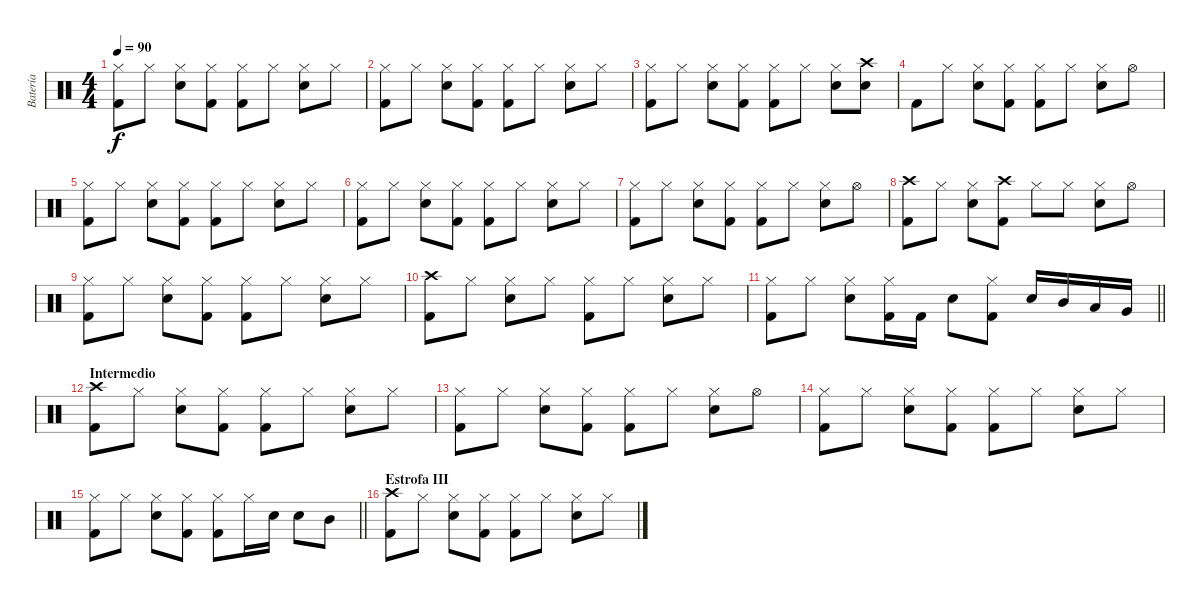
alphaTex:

\track ("Batería" "Batería") {instrument percussion}
\staff {score}
\articulation defaults
\ts (4 4)
\tempo 90
\clef neutral
\ks c
("Kick (hit) 2" "Hi-Hat (closed)").8{dy f} "Hi-Hat (closed)".8 ("Electric Snare (hit)" "Hi-Hat (closed)").8 ("Kick (hit) 2" "Hi-Hat (closed)").8 ("Kick (hit) 2" "Hi-Hat (closed)").8 "Hi-Hat (closed)".8 ("Electric Snare (hit)" "Hi-Hat (closed)").8 "Hi-Hat (closed)".8 |
("Kick (hit) 2" "Hi-Hat (closed)").8 "Hi-Hat (closed)".8 ("Electric Snare (hit)" "Hi-Hat (closed)").8 ("Kick (hit) 2" "Hi-Hat (closed)").8 ("Kick (hit) 2" "Hi-Hat (closed)").8 "Hi-Hat (closed)".8 ("Electric Snare (hit)" "Hi-Hat (closed)").8 "Hi-Hat (closed)".8 |
("Kick (hit) 2" "Hi-Hat (closed)").8 "Hi-Hat (closed)".8 ("Electric Snare (hit)" "Hi-Hat (closed)").8 ("Kick (hit) 2" "Hi-Hat (closed)").8 ("Kick (hit) 2" "Hi-Hat (closed)").8 "Hi-Hat (closed)".8 ("Electric Snare (hit)" "Hi-Hat (closed)").8 ("Electric Snare (hit)" "Crash high (hit)").8 |
"Kick (hit) 2".8 "Hi-Hat (closed)".8 ("Electric Snare (hit)" "Hi-Hat (closed)").8 ("Kick (hit) 2" "Hi-Hat (closed)").8 ("Kick (hit) 2" "Hi-Hat (closed)").8 "Hi-Hat (closed)".8 ("Electric Snare (hit)" "Hi-Hat (closed)").8 "Hi-Hat (open)".8 |
("Kick (hit) 2" "Hi-Hat (closed)").8 "Hi-Hat (closed)".8 ("Electric Snare (hit)" "Hi-Hat (closed)").8 ("Kick (hit) 2" "Hi-Hat (closed)").8 ("Kick (hit) 2" "Hi-Hat (closed)").8 "Hi-Hat (closed)".8 ("Electric Snare (hit)" "Hi-Hat (closed)").8 "Hi-Hat (closed)".8 |
("Kick (hit) 2" "Hi-Hat (closed)").8 "Hi-Hat (closed)".8 ("Electric Snare (hit)" "Hi-Hat (closed)").8 ("Kick (hit) 2" "Hi-Hat (closed)").8 ("Kick (hit) 2" "Hi-Hat (closed)").8 "Hi-Hat (closed)".8 ("Electric Snare (hit)" "Hi-Hat (closed)").8 "Hi-Hat (closed)".8 |
("Kick (hit) 2" "Hi-Hat (closed)").8 "Hi-Hat (closed)".8 ("Electric Snare (hit)" "Hi-Hat (closed)").8 ("Kick (hit) 2" "Hi-Hat (closed)").8 ("Kick (hit) 2" "Hi-Hat (closed)").8 "Hi-Hat (closed)".8 ("Electric Snare (hit)" "Hi-Hat (closed)").8 "Hi-Hat (open)".8 |
("Crash high (hit)" "Kick (hit) 2").8 "Hi-Hat (closed)".8 ("Hi-Hat (closed)" "Electric Snare (hit)").8 ("Crash high (hit)" "Kick (hit) 2").8 "Hi-Hat (closed)".8 "Hi-Hat (closed)".8 ("Hi-Hat (closed)" "Electric Snare (hit)").8 "Hi-Hat (open)".8 |
("Kick (hit) 2" "Hi-Hat (closed)").8 "Hi-Hat (closed)".8 ("Electric Snare (hit)" "Hi-Hat (closed)").8 ("Kick (hit) 2" "Hi-Hat (closed)").8 ("Kick (hit) 2" "Hi-Hat (closed)").8 "Hi-Hat (closed)".8 ("Electric Snare (hit)" "Hi-Hat (closed)").8 "Hi-Hat (closed)".8 |
("Kick (hit) 2" "Crash high (hit)").8 "Hi-Hat (closed)".8 ("Electric Snare (hit)" "Hi-Hat (closed)").8 "Hi-Hat (closed)".8 ("Kick (hit) 2" "Hi-Hat (closed)").8 "Hi-Hat (closed)".8 ("Electric Snare (hit)" "Hi-Hat (closed)").8 "Hi-Hat (closed)".8 |
\barLineRight lightlight
("Kick (hit) 2" "Hi-Hat (closed)").8 "Hi-Hat (closed)".8 ("Electric Snare (hit)" "Hi-Hat (closed)").8 ("Kick (hit) 2" "Hi-Hat (closed)").16 "Kick (hit) 2".16 "Electric Snare (hit)".8 ("Kick (hit) 2" "Hi-Hat (closed)").8 "Electric Snare (hit)".16 "Mid Tom (hit)".16 "Low Tom (hit)".16 "Very Low Tom (hit)".16 |
\section ("" "Intermedio")
("Kick (hit) 2" "Crash high (hit)").8 "Hi-Hat (closed)".8 ("Electric Snare (hit)" "Hi-Hat (closed)").8 ("Kick (hit) 2" "Hi-Hat (closed)").8 ("Kick (hit) 2" "Hi-Hat (closed)").8 "Hi-Hat (closed)".8 ("Electric Snare (hit)" "Hi-Hat (closed)").8 "Hi-Hat (closed)".8 |
("Kick (hit) 2" "Hi-Hat (closed)").8 "Hi-Hat (closed)".8 ("Electric Snare (hit)" "Hi-Hat (closed)").8 ("Kick (hit) 2" "Hi-Hat (closed)").8 ("Kick (hit) 2" "Hi-Hat (closed)").8 "Hi-Hat (closed)".8 ("Electric Snare (hit)" "Hi-Hat (closed)").8 "Hi-Hat (open)".8 |
("Kick (hit) 2" "Hi-Hat (closed)").8 "Hi-Hat (closed)".8 ("Electric Snare (hit)" "Hi-Hat (closed)").8 ("Kick (hit) 2" "Hi-Hat (closed)").8 ("Kick (hit) 2" "Hi-Hat (closed)").8 "Hi-Hat (closed)".8 ("Electric Snare (hit)" "Hi-Hat (closed)").8 "Hi-Hat (closed)".8 |
\barLineRight lightlight
("Kick (hit) 2" "Hi-Hat (closed)").8 "Hi-Hat (closed)".8 ("Electric Snare (hit)" "Hi-Hat (closed)").8 ("Kick (hit) 2" "Hi-Hat (closed)").8 ("Kick (hit) 2" "Hi-Hat (closed)").8 "Hi-Hat (closed)".16 "Electric Snare (hit)".16 "Electric Snare (hit)".8 "Mid Tom (hit)".8 |
\section ("" "Estrofa III")
("Kick (hit) 2" "Crash high (hit)").8 "Hi-Hat (closed)".8 ("Electric Snare (hit)" "Hi-Hat (closed)").8 ("Kick (hit) 2" "Hi-Hat (closed)").8 ("Kick (hit) 2" "Hi-Hat (closed)").8 "Hi-Hat (closed)".8 ("Electric Snare (hit)" "Hi-Hat (closed)").8 "Hi-Hat (closed)".8
